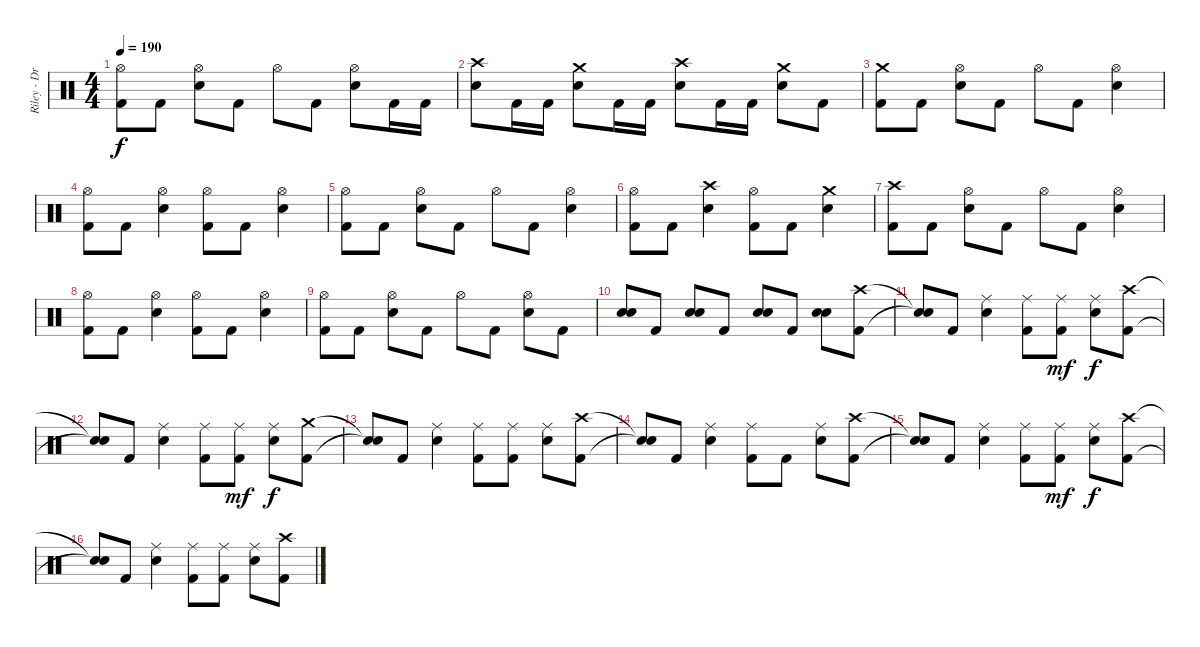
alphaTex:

\track ("Riley - Drums" "Riley - Dr") {instrument percussion}
\staff {score}
\articulation defaults
\ts (4 4)
\tempo 190
\clef neutral
\ks c
("Kick (hit) 2" "Hi-Hat (open)").8{dy f} "Kick (hit) 2".8 ("Electric Snare (hit)" "Hi-Hat (open)").8 "Kick (hit) 2".8 "Hi-Hat (open)".8 "Kick (hit) 2".8 ("Electric Snare (hit)" "Hi-Hat (open)").8 "Kick (hit) 2".16 "Kick (hit) 2".16 |
("Electric Snare (hit)" "Crash high (hit)").8 "Kick (hit) 2".16 "Kick (hit) 2".16 ("Electric Snare (hit)" "Crash medium (hit)").8 "Kick (hit) 2".16 "Kick (hit) 2".16 ("Electric Snare (hit)" "Crash high (hit)").8 "Kick (hit) 2".16 "Kick (hit) 2".16 ("Electric Snare (hit)" "Crash medium (hit)").8 "Kick (hit) 2".8 |
("Kick (hit) 2" "Crash medium (hit)").8 "Kick (hit) 2".8 ("Electric Snare (hit)" "Hi-Hat (open)").8 "Kick (hit) 2".8 "Hi-Hat (open)".8 "Kick (hit) 2".8 ("Electric Snare (hit)" "Hi-Hat (open)").4 |
("Kick (hit) 2" "Hi-Hat (open)").8 "Kick (hit) 2".8 ("Electric Snare (hit)" "Hi-Hat (open)").4 ("Kick (hit) 2" "Hi-Hat (open)").8 "Kick (hit) 2".8 ("Electric Snare (hit)" "Hi-Hat (open)").4 |
("Kick (hit) 2" "Hi-Hat (open)").8 "Kick (hit) 2".8 ("Electric Snare (hit)" "Hi-Hat (open)").8 "Kick (hit) 2".8 "Hi-Hat (open)".8 "Kick (hit) 2".8 ("Electric Snare (hit)" "Hi-Hat (open)").4 |
("Kick (hit) 2" "Hi-Hat (open)").8 "Kick (hit) 2".8 ("Electric Snare (hit)" "Crash high (hit)").4 ("Kick (hit) 2" "Hi-Hat (open)").8 "Kick (hit) 2".8 ("Electric Snare (hit)" "Crash medium (hit)").4 |
("Kick (hit) 2" "Crash high (hit)").8 "Kick (hit) 2".8 ("Electric Snare (hit)" "Hi-Hat (open)").8 "Kick (hit) 2".8 "Hi-Hat (open)".8 "Kick (hit) 2".8 ("Electric Snare (hit)" "Hi-Hat (open)").4 |
("Kick (hit) 2" "Hi-Hat (open)").8 "Kick (hit) 2".8 ("Electric Snare (hit)" "Hi-Hat (open)").4 ("Kick (hit) 2" "Hi-Hat (open)").8 "Kick (hit) 2".8 ("Electric Snare (hit)" "Hi-Hat (open)").4 |
("Kick (hit) 2" "Hi-Hat (open)").8 "Kick (hit) 2".8 ("Electric Snare (hit)" "Hi-Hat (open)").8 "Kick (hit) 2".8 "Hi-Hat (open)".8 "Kick (hit) 2".8 ("Electric Snare (hit)" "Hi-Hat (open)").8 "Kick (hit) 2".8 |
("Electric Snare (hit)" "Electric Snare (hit)").8 "Kick (hit) 2".8 ("Electric Snare (hit)" "Electric Snare (hit)").8 "Kick (hit) 2".8 ("Electric Snare (hit)" "Electric Snare (hit)").8 "Kick (hit) 2".8 ("Electric Snare (hit)" "Electric Snare (hit)").8 ("Kick (hit) 2" "Crash high (hit)").8 |
("Snare (hit)"{t} "Snare (hit)"{t}).8 "Kick (hit) 2".8 ("Electric Snare (hit)" "Ride (middle)").4 ("Kick (hit) 2" "Ride (middle)").8 ("Kick (hit) 2" "Ride (middle)").8{dy mf} ("Electric Snare (hit)" "Ride (middle)").8{dy f} ("Kick (hit) 2" "Crash high (hit)").8 |
("Snare (hit)"{t} "Snare (hit)"{t}).8 "Kick (hit) 2".8 ("Electric Snare (hit)" "Ride (middle)").4 ("Kick (hit) 2" "Ride (middle)").8 ("Kick (hit) 2" "Ride (middle)").8{dy mf} ("Electric Snare (hit)" "Ride (middle)").8{dy f} ("Kick (hit) 2" "Crash medium (hit)").8 |
("Snare (hit)"{t} "Snare (hit)"{t}).8 "Kick (hit) 2".8 ("Electric Snare (hit)" "Ride (middle)").4 ("Kick (hit) 2" "Ride (middle)").8 ("Kick (hit) 2" "Ride (middle)").8 ("Electric Snare (hit)" "Ride (middle)").8 ("Kick (hit) 2" "Crash high (hit)").8 |
("Snare (hit)"{t} "Snare (hit)"{t}).8 "Kick (hit) 2".8 ("Electric Snare (hit)" "Ride (middle)").4 ("Kick (hit) 2" "Ride (middle)").8 "Kick (hit) 2".8 ("Electric Snare (hit)" "Ride (middle)").8 ("Kick (hit) 2" "Crash high (hit)").8 |
("Snare (hit)"{t} "Snare (hit)"{t}).8 "Kick (hit) 2".8 ("Electric Snare (hit)" "Ride (middle)").4 ("Kick (hit) 2" "Ride (middle)").8 ("Kick (hit) 2" "Ride (middle)").8{dy mf} ("Electric Snare (hit)" "Ride (middle)").8{dy f} ("Kick (hit) 2" "Crash high (hit)").8 |
("Snare (hit)"{t} "Snare (hit)"{t}).8 "Kick (hit) 2".8 ("Electric Snare (hit)" "Ride (middle)").4 ("Kick (hit) 2" "Ride (middle)").8 ("Kick (hit) 2" "Ride (middle)").8 ("Electric Snare (hit)" "Ride (middle)").8 ("Kick (hit) 2" "Crash high (hit)").8
